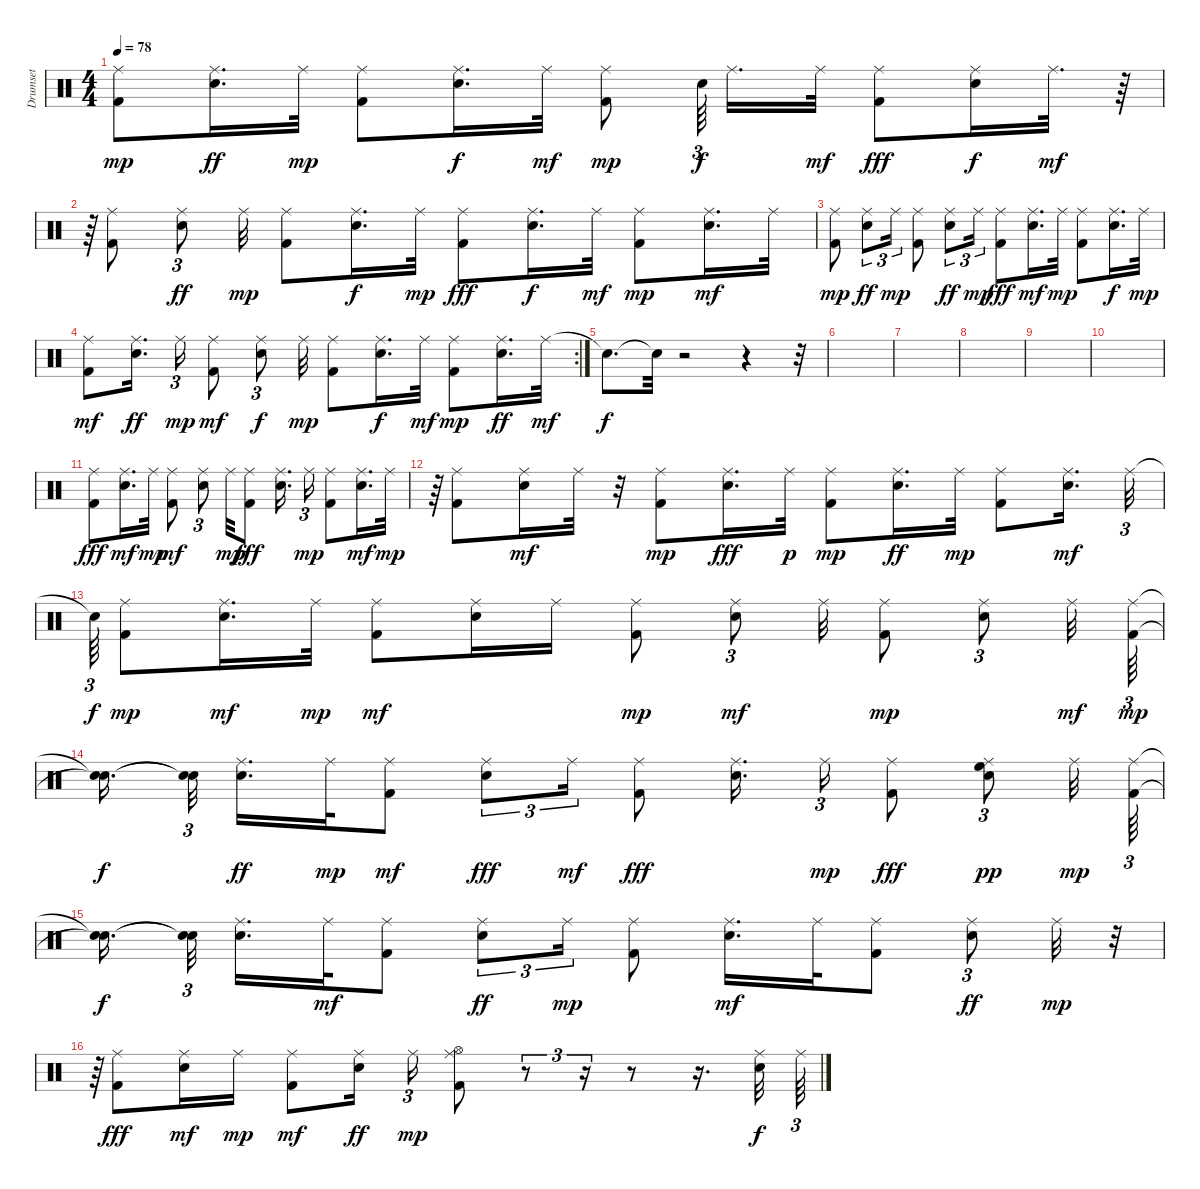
\track ("Drumset" "Drumset") {instrument percussion}
\staff {score}
\articulation defaults
\ts (4 4)
\tempo 78
\clef neutral
\ks c
("Kick (hit) 2" "Ride (middle)").8{dy mp} ("Snare (hit) 2" "Ride (middle)").16{d dy ff} "Ride (middle)".32{dy mp} ("Kick (hit) 2" "Ride (middle)").8 ("Snare (hit) 2" "Ride (middle)").16{d dy f} "Ride (middle)".32{dy mf} ("Kick (hit) 2" "Ride (middle)").8{dy mp} "Snare (hit) 2".64{tu (3 2) dy f beam splitsecondary} "Ride (middle)".16{d} "Ride (middle)".32{dy mf} ("Kick (hit) 2" "Ride (middle)").8{dy fff} ("Snare (hit) 2" "Ride (middle)").16{dy f} "Ride (middle)".32{d dy mf} r.64 |
r.64{tu (3 2)} ("Kick (hit) 2" "Ride (middle)").8 ("Ride (middle)" "Snare (hit) 2").8{tu (3 2) dy ff} "Ride (middle)".32{dy mp} ("Kick (hit) 2" "Ride (middle)").8 ("Snare (hit) 2" "Ride (middle)").16{d dy f} "Ride (middle)".32{dy mp} ("Ride (middle)" "Kick (hit) 2").8{dy fff} ("Ride (middle)" "Snare (hit) 2").16{d dy f} "Ride (middle)".32{dy mf} ("Kick (hit) 2" "Ride (middle)").8{dy mp} ("Snare (hit) 2" "Ride (middle)").16{d dy mf} "Ride (middle)".32 |
("Kick (hit) 2" "Ride (middle)").8{dy mp} ("Ride (middle)" "Snare (hit) 2").8{tu (3 2) dy ff} "Ride (middle)".16{tu (3 2) dy mp} ("Kick (hit) 2" "Ride (middle)").8 ("Ride (middle)" "Snare (hit) 2").8{tu (3 2) dy ff} "Ride (middle)".16{tu (3 2) dy mp} ("Ride (middle)" "Kick (hit) 2").8{dy fff} ("Ride (middle)" "Snare (hit) 2").16{d dy mf} "Ride (middle)".32{dy mp} ("Kick (hit) 2" "Ride (middle)").8 ("Snare (hit) 2" "Ride (middle)").16{d dy f} "Ride (middle)".32{dy mp} |
\rc 2
("Kick (hit) 2" "Ride (middle)").8{dy mf} ("Snare (hit) 2" "Ride (middle)").16{d dy ff} "Ride (middle)".16{tu (3 2) dy mp} ("Kick (hit) 2" "Ride (middle)").8{dy mf} ("Ride (middle)" "Snare (hit) 2").8{tu (3 2) dy f} "Ride (middle)".32{dy mp} ("Kick (hit) 2" "Ride (middle)").8 ("Snare (hit) 2" "Ride (middle)").16{d dy f} "Ride (middle)".32{dy mf} ("Kick (hit) 2" "Ride (middle)").8{dy mp} ("Snare (hit) 2" "Ride (middle)").16{d dy ff} "Ride (middle)".32{dy mf} |
"Snare (hit)"{t}.8{d dy f} "Snare (hit)"{t}.32 r.2 r.4 r.32 |
|
|
|
|
|
("Kick (hit) 2" "Ride (middle)").8{dy fff} ("Ride (middle)" "Snare (hit) 2").16{d dy mf} "Ride (middle)".32{dy mp} ("Kick (hit) 2" "Ride (middle)").8{dy mf} ("Snare (hit) 2" "Ride (middle)").8{tu (3 2)} "Ride (middle)".32{dy mp} ("Ride (middle)" "Kick (hit) 2").8{dy fff} ("Ride (middle)" "Snare (hit) 2").16{d} "Ride (middle)".16{tu (3 2) dy mp} ("Kick (hit) 2" "Ride (middle)").8 ("Snare (hit) 2" "Ride (middle)").16{d dy mf} "Ride (middle)".32{dy mp} |
r.64{tu (3 2)} ("Kick (hit) 2" "Ride (middle)").8 ("Snare (hit) 2" "Ride (middle)").16{dy mf} "Ride (middle)".32 r.32 ("Kick (hit) 2" "Ride (middle)").8{dy mp} ("Ride (middle)" "Snare (hit) 2").16{d dy fff} "Ride (middle)".32{dy p} ("Kick (hit) 2" "Ride (middle)").8{dy mp} ("Snare (hit) 2" "Ride (middle)").16{d dy ff} "Ride (middle)".32{dy mp} ("Kick (hit) 2" "Ride (middle)").8 ("Snare (hit) 2" "Ride (middle)").16{d dy mf} "Ride (middle)".32{tu (3 2)} |
"Snare (hit)"{t}.64{tu (3 2) dy f} ("Kick (hit) 2" "Ride (middle)").8{dy mp} ("Snare (hit) 2" "Ride (middle)").16{d dy mf} "Ride (middle)".32{dy mp} ("Kick (hit) 2" "Ride (middle)").8{dy mf} ("Snare (hit) 2" "Ride (middle)").16 "Ride (middle)".16 ("Kick (hit) 2" "Ride (middle)").8{dy mp} ("Snare (hit) 2" "Ride (middle)").8{tu (3 2) dy mf} "Ride (middle)".32 ("Kick (hit) 2" "Ride (middle)").8{dy mp} ("Snare (hit) 2" "Ride (middle)").8{tu (3 2)} "Ride (middle)".32{dy mf} ("Kick (hit) 2" "Ride (middle)").64{tu (3 2) dy mp} |
("Snare (hit)"{t} "Snare (hit)"{t}).16{d dy f beam splitsecondary} ("Snare (hit)"{t} "Snare (hit)"{t}).32{tu (3 2) beam splitsecondary} ("Ride (middle)" "Snare (hit) 2").16{d dy ff} "Ride (middle)".32{dy mp} ("Kick (hit) 2" "Ride (middle)").8{dy mf} ("Snare (hit) 2" "Ride (middle)").8{tu (3 2) dy fff} "Ride (middle)".16{tu (3 2) dy mf} ("Ride (middle)" "Kick (hit) 2").8{dy fff} ("Ride (middle)" "Snare (hit) 2").16{d} "Ride (middle)".16{tu (3 2) dy mp} ("Ride (middle)" "Kick (hit) 2").8{dy fff} ("Ride (middle)" "Snare (hit) 2" "High Floor Tom (hit)").8{tu (3 2) dy pp} "Ride (middle)".32{dy mp} ("Kick (hit) 2" "Ride (middle)").64{tu (3 2)} |
("Snare (hit)"{t} "Snare (hit)"{t}).16{d dy f beam splitsecondary} ("Snare (hit)"{t} "Snare (hit)"{t}).32{tu (3 2) beam splitsecondary} ("Snare (hit) 2" "Ride (middle)").16{d} "Ride (middle)".32{dy mf} ("Kick (hit) 2" "Ride (middle)").8 ("Ride (middle)" "Snare (hit) 2").8{tu (3 2) dy ff} "Ride (middle)".16{tu (3 2) dy mp} ("Kick (hit) 2" "Ride (middle)").8 ("Ride (middle)" "Snare (hit) 2").16{d dy mf} "Ride (middle)".32 ("Kick (hit) 2" "Ride (middle)").8 ("Ride (middle)" "Snare (hit) 2").8{tu (3 2) dy ff} "Ride (middle)".32{dy mp} r.32{tu (3 2)} |
r.64{tu (3 2)} ("Ride (middle)" "Kick (hit) 2").8{dy fff} ("Ride (middle)" "Snare (hit) 2").16{dy mf} "Ride (middle)".16{dy mp} ("Kick (hit) 2" "Ride (middle)").8{dy mf} ("Ride (middle)" "Snare (hit) 2").16{dy ff beam splitsecondary} "Ride (middle)".16{tu (3 2) dy mp} ("Kick (hit) 2" "Ride (middle)" "Hi-Hat (open)").8 r.8{tu (3 2)} r.16{tu (3 2)} r.8 r.16{d} ("Ride (middle)" "Snare (hit) 2").32{dy f} "Ride (middle)".64{tu (3 2)}
